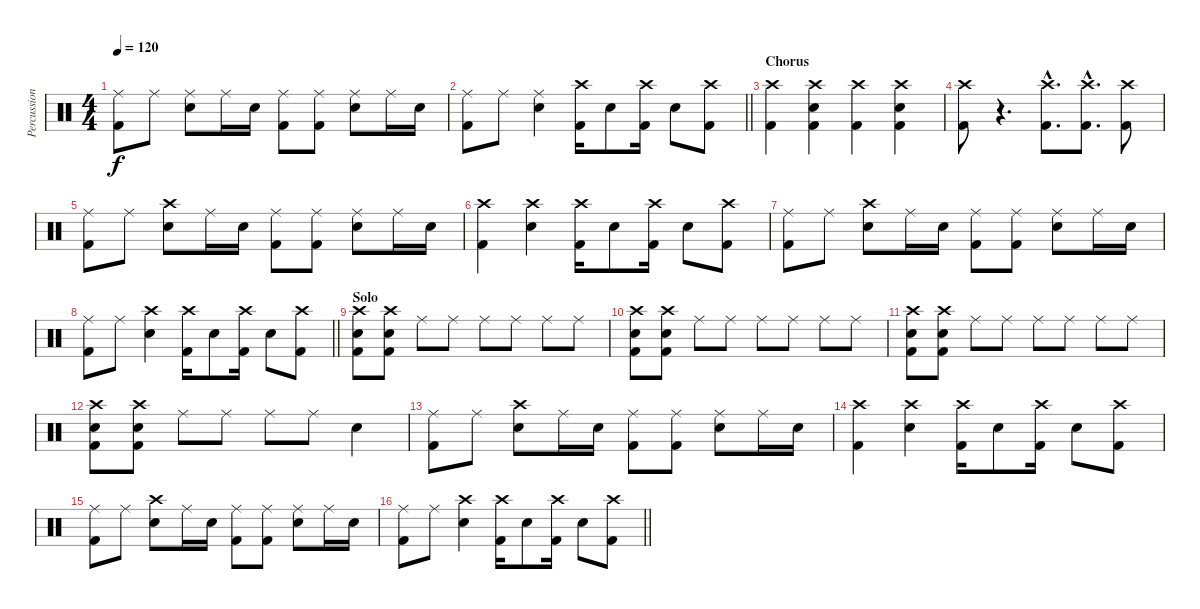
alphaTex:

\track ("Percussion" "Percussion") {instrument percussion}
\staff {score}
\articulation defaults
\ts (4 4)
\tempo 120
\clef neutral
\ks c
("Ride (middle)" "Kick (hit) 2").8{dy f} "Ride (middle)".8 ("Ride (middle)" "Electric Snare (hit)").8 "Ride (middle)".16 "Electric Snare (hit)".16 ("Ride (middle)" "Kick (hit) 2").8 ("Ride (middle)" "Kick (hit) 2").8 ("Ride (middle)" "Electric Snare (hit)").8 "Ride (middle)".16 "Electric Snare (hit)".16 |
\barLineRight lightlight
("Ride (middle)" "Kick (hit) 2").8 "Ride (middle)".8 ("Ride (middle)" "Electric Snare (hit)").4 ("Crash high (hit)" "Kick (hit) 2").16 "Electric Snare (hit)".8 ("Crash high (hit)" "Kick (hit) 2").16 "Electric Snare (hit)".8 ("Crash high (hit)" "Kick (hit) 2").8 |
\section ("" "Chorus")
("Crash high (hit)" "Kick (hit) 2").4 ("Crash high (hit)" "Electric Snare (hit)" "Kick (hit) 2").4 ("Crash high (hit)" "Kick (hit) 2").4 ("Crash high (hit)" "Electric Snare (hit)" "Kick (hit) 2").4 |
("Crash high (hit)" "Kick (hit) 2").8 r.4{d} ("Crash high (hit)"{hac} "Kick (hit) 2"{hac}).8{d} ("Crash high (hit)"{hac} "Kick (hit) 2"{hac}).8{d} ("Crash high (hit)" "Kick (hit) 2").8 |
("Ride (middle)" "Kick (hit) 2").8 "Ride (middle)".8 ("Crash high (hit)" "Electric Snare (hit)").8 "Ride (middle)".16 "Electric Snare (hit)".16 ("Ride (middle)" "Kick (hit) 2").8 ("Ride (middle)" "Kick (hit) 2").8 ("Ride (middle)" "Electric Snare (hit)").8 "Ride (middle)".16 "Electric Snare (hit)".16 |
("Crash high (hit)" "Kick (hit) 2").4 ("Crash high (hit)" "Electric Snare (hit)").4 ("Crash high (hit)" "Kick (hit) 2").16 "Electric Snare (hit)".8 ("Crash high (hit)" "Kick (hit) 2").16 "Electric Snare (hit)".8 ("Crash high (hit)" "Kick (hit) 2").8 |
("Ride (middle)" "Kick (hit) 2").8 "Ride (middle)".8 ("Crash high (hit)" "Electric Snare (hit)").8 "Ride (middle)".16 "Electric Snare (hit)".16 ("Ride (middle)" "Kick (hit) 2").8 ("Ride (middle)" "Kick (hit) 2").8 ("Ride (middle)" "Electric Snare (hit)").8 "Ride (middle)".16 "Electric Snare (hit)".16 |
\barLineRight lightlight
("Ride (middle)" "Kick (hit) 2").8 "Ride (middle)".8 ("Crash high (hit)" "Electric Snare (hit)").4 ("Crash high (hit)" "Kick (hit) 2").16 "Electric Snare (hit)".8 ("Crash high (hit)" "Kick (hit) 2").16 "Electric Snare (hit)".8 ("Crash high (hit)" "Kick (hit) 2").8 |
\section ("" "Solo")
("Crash high (hit)" "Electric Snare (hit)" "Kick (hit) 2").8 ("Crash high (hit)" "Electric Snare (hit)" "Kick (hit) 2").8 "Ride (middle)".8 "Ride (middle)".8 "Ride (middle)".8 "Ride (middle)".8 "Ride (middle)".8 "Ride (middle)".8 |
("Crash high (hit)" "Electric Snare (hit)" "Kick (hit) 2").8 ("Crash high (hit)" "Electric Snare (hit)" "Kick (hit) 2").8 "Ride (middle)".8 "Ride (middle)".8 "Ride (middle)".8 "Ride (middle)".8 "Ride (middle)".8 "Ride (middle)".8 |
("Crash high (hit)" "Electric Snare (hit)" "Kick (hit) 2").8 ("Crash high (hit)" "Electric Snare (hit)" "Kick (hit) 2").8 "Ride (middle)".8 "Ride (middle)".8 "Ride (middle)".8 "Ride (middle)".8 "Ride (middle)".8 "Ride (middle)".8 |
("Crash high (hit)" "Electric Snare (hit)" "Kick (hit) 2").8 ("Crash high (hit)" "Electric Snare (hit)" "Kick (hit) 2").8 "Ride (middle)".8 "Ride (middle)".8 "Ride (middle)".8 "Ride (middle)".8 "Electric Snare (hit)".4 |
("Ride (middle)" "Kick (hit) 2").8 "Ride (middle)".8 ("Crash high (hit)" "Electric Snare (hit)").8 "Ride (middle)".16 "Electric Snare (hit)".16 ("Ride (middle)" "Kick (hit) 2").8 ("Ride (middle)" "Kick (hit) 2").8 ("Ride (middle)" "Electric Snare (hit)").8 "Ride (middle)".16 "Electric Snare (hit)".16 |
("Crash high (hit)" "Kick (hit) 2").4 ("Crash high (hit)" "Electric Snare (hit)").4 ("Crash high (hit)" "Kick (hit) 2").16 "Electric Snare (hit)".8 ("Crash high (hit)" "Kick (hit) 2").16 "Electric Snare (hit)".8 ("Crash high (hit)" "Kick (hit) 2").8 |
("Ride (middle)" "Kick (hit) 2").8 "Ride (middle)".8 ("Crash high (hit)" "Electric Snare (hit)").8 "Ride (middle)".16 "Electric Snare (hit)".16 ("Ride (middle)" "Kick (hit) 2").8 ("Ride (middle)" "Kick (hit) 2").8 ("Ride (middle)" "Electric Snare (hit)").8 "Ride (middle)".16 "Electric Snare (hit)".16 |
\barLineRight lightlight
("Ride (middle)" "Kick (hit) 2").8 "Ride (middle)".8 ("Crash high (hit)" "Electric Snare (hit)").4 ("Crash high (hit)" "Kick (hit) 2").16 "Electric Snare (hit)".8 ("Crash high (hit)" "Kick (hit) 2").16 "Electric Snare (hit)".8 ("Crash high (hit)" "Kick (hit) 2").8
